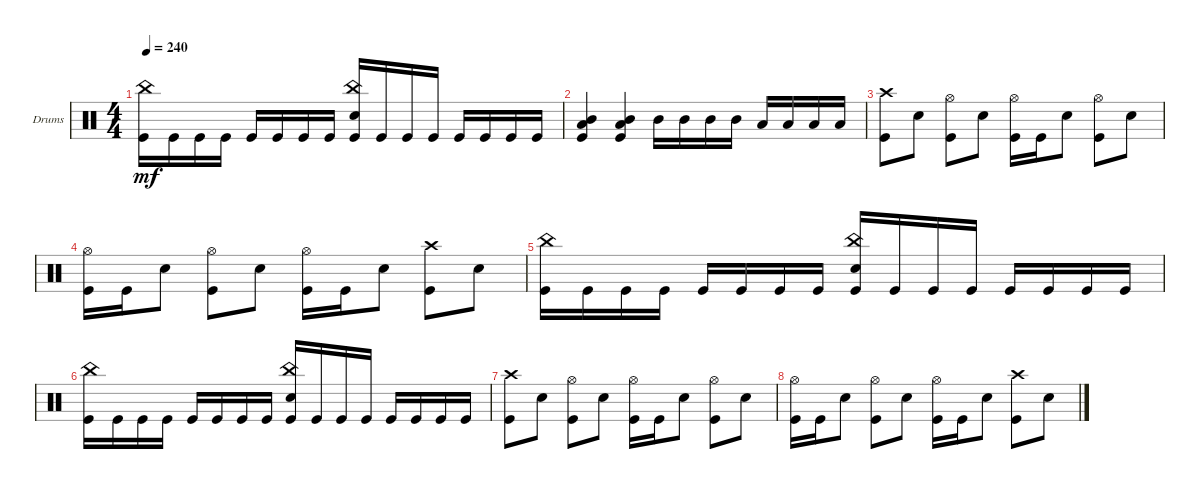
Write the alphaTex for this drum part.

\defaultSystemsLayout 4
\bracketExtendMode groupsimilarinstruments
\firstSystemTrackNameOrientation horizontal
\otherSystemsTrackNameOrientation horizontal
\track ("Drumkit" "Drums") {instrument percussion}
\staff {score}
\articulation defaults
\ts (4 4)
\tempo 240
\clef neutral
\scale
0.333333
\ks c
("Kick (hit)" "China (hit)").16{dy mf} "Kick (hit)".16 "Kick (hit)".16 "Kick (hit)".16 "Kick (hit)".16 "Kick (hit)".16 "Kick (hit)".16 "Kick (hit)".16 ("Kick (hit)" "Snare (hit) 2" "China (hit)").16 "Kick (hit)".16 "Kick (hit)".16 "Kick (hit)".16 "Kick (hit)".16 "Kick (hit)".16 "Kick (hit)".16 "Kick (hit)".16 |
\scale
0.333333 ("Mid Tom (hit)" "Low Tom (hit)" "Kick (hit)").4 ("Mid Tom (hit)" "Low Tom (hit)" "Kick (hit)").4 "Mid Tom (hit)".16 "Mid Tom (hit)".16 "Mid Tom (hit)".16 "Mid Tom (hit)".16 "Low Tom (hit)".16 "Low Tom (hit)".16 "Low Tom (hit)".16 "Low Tom (hit)".16 |
\scale
0.333333 ("Crash high (hit)" "Kick (hit)").8 "Snare (hit) 2".8 ("Kick (hit)" "Hi-Hat (open)").8 "Snare (hit) 2".8 ("Kick (hit)" "Hi-Hat (open)").16 "Kick (hit)".16 "Snare (hit) 2".8 ("Kick (hit)" "Hi-Hat (open)").8 "Snare (hit) 2".8 |
\scale
0.333333 ("Kick (hit)" "Hi-Hat (open)").16 "Kick (hit)".16 "Snare (hit) 2".8 ("Kick (hit)" "Hi-Hat (open)").8 "Snare (hit) 2".8 ("Kick (hit)" "Hi-Hat (open)").16 "Kick (hit)".16 "Snare (hit) 2".8 ("Kick (hit)" "Crash high (hit)").8 "Snare (hit) 2".8 |
\scale
0.333333 ("Kick (hit)" "China (hit)").16 "Kick (hit)".16 "Kick (hit)".16 "Kick (hit)".16 "Kick (hit)".16 "Kick (hit)".16 "Kick (hit)".16 "Kick (hit)".16 ("Kick (hit)" "Snare (hit) 2" "China (hit)").16 "Kick (hit)".16 "Kick (hit)".16 "Kick (hit)".16 "Kick (hit)".16 "Kick (hit)".16 "Kick (hit)".16 "Kick (hit)".16 |
\scale
0.333333 ("Kick (hit)" "China (hit)").16 "Kick (hit)".16 "Kick (hit)".16 "Kick (hit)".16 "Kick (hit)".16 "Kick (hit)".16 "Kick (hit)".16 "Kick (hit)".16 ("Kick (hit)" "Snare (hit) 2" "China (hit)").16 "Kick (hit)".16 "Kick (hit)".16 "Kick (hit)".16 "Kick (hit)".16 "Kick (hit)".16 "Kick (hit)".16 "Kick (hit)".16 |
\scale
0.333333 ("Crash high (hit)" "Kick (hit)").8 "Snare (hit) 2".8 ("Kick (hit)" "Hi-Hat (open)").8 "Snare (hit) 2".8 ("Kick (hit)" "Hi-Hat (open)").16 "Kick (hit)".16 "Snare (hit) 2".8 ("Kick (hit)" "Hi-Hat (open)").8 "Snare (hit) 2".8 |
\scale
0.333333 ("Kick (hit)" "Hi-Hat (open)").16 "Kick (hit)".16 "Snare (hit) 2".8 ("Kick (hit)" "Hi-Hat (open)").8 "Snare (hit) 2".8 ("Kick (hit)" "Hi-Hat (open)").16 "Kick (hit)".16 "Snare (hit) 2".8 ("Kick (hit)" "Crash high (hit)").8 "Snare (hit) 2".8 |
\scale
0.333333 |
\scale
0.333333 |
\scale
0.333333 |
\scale
0.333333 |
\scale
0.333333 |
\scale
0.333333 |
\scale
0.333333 |
\scale
0.333333
